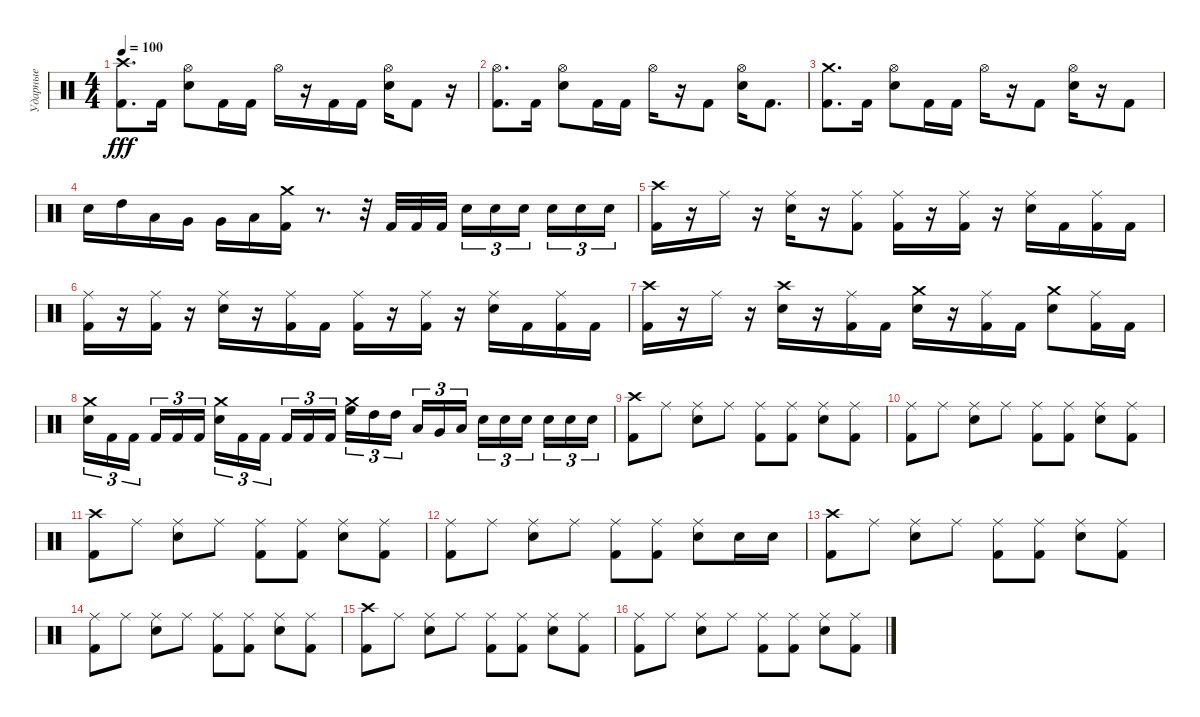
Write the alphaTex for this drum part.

\track ("Ударные" "Ударные") {instrument percussion}
\staff {score}
\articulation defaults
\ts (4 4)
\tempo 100
\clef neutral
\ks c
("Kick (hit) 2" "Crash high (hit)").8{d dy fff} "Kick (hit) 2".16 ("Electric Snare (hit)" "Hi-Hat (open)").8 "Kick (hit) 2".16 "Kick (hit) 2".16 "Hi-Hat (open)".16 r.16 "Kick (hit) 2".16 "Kick (hit) 2".16 ("Electric Snare (hit)" "Hi-Hat (open)").16 "Kick (hit) 2".8 r.16 |
("Kick (hit) 2" "Hi-Hat (open)").8{d} "Kick (hit) 2".16 ("Electric Snare (hit)" "Hi-Hat (open)").8 "Kick (hit) 2".16 "Kick (hit) 2".16 "Hi-Hat (open)".16 r.16 "Kick (hit) 2".8 ("Electric Snare (hit)" "Hi-Hat (open)").16 "Kick (hit) 2".8{d} |
("Kick (hit) 2" "Crash medium (hit)").8{d} "Kick (hit) 2".16 ("Electric Snare (hit)" "Hi-Hat (open)").8 "Kick (hit) 2".16 "Kick (hit) 2".16 "Hi-Hat (open)".16 r.16 "Kick (hit) 2".8 ("Electric Snare (hit)" "Hi-Hat (open)").16 r.16 "Kick (hit) 2".8 |
"Electric Snare (hit)".16 "High Tom (hit)".16 "Low Tom (hit)".16 "Very Low Tom (hit)".16 "Very Low Tom (hit)".16 "Low Floor Tom (hit)".16 ("Kick (hit) 2" "Crash medium (hit)").16 r.8{d} r.32 "Kick (hit) 2".32 "Kick (hit) 2".32 "Kick (hit) 2".32 "Electric Snare (hit)".16{tu (3 2)} "Electric Snare (hit)".16{tu (3 2)} "Electric Snare (hit)".16{tu (3 2) beam splitsecondary} "Electric Snare (hit)".16{tu (3 2)} "Electric Snare (hit)".16{tu (3 2)} "Electric Snare (hit)".16{tu (3 2)} |
("Kick (hit) 2" "Crash high (hit)").16 r.16 "Ride (middle)".16 r.16 ("Electric Snare (hit)" "Ride (middle)").16 r.16 ("Kick (hit) 2" "Ride (middle)").8 ("Kick (hit) 2" "Ride (middle)").16 r.16 ("Kick (hit) 2" "Ride (middle)").16 r.16 ("Electric Snare (hit)" "Ride (middle)").16 "Kick (hit) 2".16 ("Kick (hit) 2" "Ride (middle)").16 "Kick (hit) 2".16 |
("Kick (hit) 2" "Ride (middle)").16 r.16 ("Kick (hit) 2" "Ride (middle)").16 r.16 ("Electric Snare (hit)" "Ride (middle)").16 r.16 ("Kick (hit) 2" "Ride (middle)").16 "Kick (hit) 2".16 ("Kick (hit) 2" "Ride (middle)").16 r.16 ("Kick (hit) 2" "Ride (middle)").16 r.16 ("Electric Snare (hit)" "Ride (middle)").16 "Kick (hit) 2".16 ("Kick (hit) 2" "Ride (middle)").16 "Kick (hit) 2".16 |
("Kick (hit) 2" "Crash high (hit)").16 r.16 "Ride (middle)".16 r.16 ("Electric Snare (hit)" "Crash high (hit)").16 r.16 ("Kick (hit) 2" "Ride (middle)").16 "Kick (hit) 2".16 ("Electric Snare (hit)" "Crash medium (hit)").16 r.16 ("Kick (hit) 2" "Ride (middle)").16 "Kick (hit) 2".16 ("Electric Snare (hit)" "Crash medium (hit)").8 ("Kick (hit) 2" "Ride (middle)").16 "Kick (hit) 2".16 |
("Electric Snare (hit)" "Crash medium (hit)").16{tu (3 2)} "Kick (hit) 2".16{tu (3 2)} "Kick (hit) 2".16{tu (3 2) beam splitsecondary} "Kick (hit) 2".16{tu (3 2)} "Kick (hit) 2".16{tu (3 2)} "Kick (hit) 2".16{tu (3 2)} ("Electric Snare (hit)" "Crash medium (hit)").16{tu (3 2)} "Kick (hit) 2".16{tu (3 2)} "Kick (hit) 2".16{tu (3 2) beam splitsecondary} "Kick (hit) 2".16{tu (3 2)} "Kick (hit) 2".16{tu (3 2)} "Kick (hit) 2".16{tu (3 2)} ("High Floor Tom (hit)" "Crash medium (hit)").16{tu (3 2)} "High Tom (hit)".16{tu (3 2)} "High Tom (hit)".16{tu (3 2) beam splitsecondary} "Low Tom (hit)".16{tu (3 2)} "Very Low Tom (hit)".16{tu (3 2)} "Low Floor Tom (hit)".16{tu (3 2)} "Electric Snare (hit)".16{tu (3 2)} "Electric Snare (hit)".16{tu (3 2)} "Electric Snare (hit)".16{tu (3 2) beam splitsecondary} "Electric Snare (hit)".16{tu (3 2)} "Electric Snare (hit)".16{tu (3 2)} "Electric Snare (hit)".16{tu (3 2)} |
("Kick (hit) 2" "Crash high (hit)").8 "Ride (middle)".8 ("Electric Snare (hit)" "Ride (middle)").8 "Ride (middle)".8 ("Kick (hit) 2" "Ride (middle)").8 ("Kick (hit) 2" "Ride (middle)").8 ("Electric Snare (hit)" "Ride (middle)").8 ("Kick (hit) 2" "Ride (middle)").8 |
("Kick (hit) 2" "Ride (middle)").8 "Ride (middle)".8 ("Electric Snare (hit)" "Ride (middle)").8 "Ride (middle)".8 ("Kick (hit) 2" "Ride (middle)").8 ("Kick (hit) 2" "Ride (middle)").8 ("Electric Snare (hit)" "Ride (middle)").8 ("Kick (hit) 2" "Ride (middle)").8 |
("Kick (hit) 2" "Crash high (hit)").8 "Ride (middle)".8 ("Electric Snare (hit)" "Ride (middle)").8 "Ride (middle)".8 ("Kick (hit) 2" "Ride (middle)").8 ("Kick (hit) 2" "Ride (middle)").8 ("Electric Snare (hit)" "Ride (middle)").8 ("Kick (hit) 2" "Ride (middle)").8 |
("Kick (hit) 2" "Ride (middle)").8 "Ride (middle)".8 ("Electric Snare (hit)" "Ride (middle)").8 "Ride (middle)".8 ("Kick (hit) 2" "Ride (middle)").8 ("Kick (hit) 2" "Ride (middle)").8 ("Electric Snare (hit)" "Ride (middle)").8 "Electric Snare (hit)".16 "Electric Snare (hit)".16 |
("Kick (hit) 2" "Crash high (hit)").8 "Ride (middle)".8 ("Electric Snare (hit)" "Ride (middle)").8 "Ride (middle)".8 ("Kick (hit) 2" "Ride (middle)").8 ("Kick (hit) 2" "Ride (middle)").8 ("Electric Snare (hit)" "Ride (middle)").8 ("Kick (hit) 2" "Ride (middle)").8 |
("Kick (hit) 2" "Ride (middle)").8 "Ride (middle)".8 ("Electric Snare (hit)" "Ride (middle)").8 "Ride (middle)".8 ("Kick (hit) 2" "Ride (middle)").8 ("Kick (hit) 2" "Ride (middle)").8 ("Electric Snare (hit)" "Ride (middle)").8 ("Kick (hit) 2" "Ride (middle)").8 |
("Kick (hit) 2" "Crash high (hit)").8 "Ride (middle)".8 ("Electric Snare (hit)" "Ride (middle)").8 "Ride (middle)".8 ("Kick (hit) 2" "Ride (middle)").8 ("Kick (hit) 2" "Ride (middle)").8 ("Electric Snare (hit)" "Ride (middle)").8 ("Kick (hit) 2" "Ride (middle)").8 |
("Kick (hit) 2" "Ride (middle)").8 "Ride (middle)".8 ("Electric Snare (hit)" "Ride (middle)").8 "Ride (middle)".8 ("Kick (hit) 2" "Ride (middle)").8 ("Kick (hit) 2" "Ride (middle)").8 ("Electric Snare (hit)" "Ride (middle)").8 ("Kick (hit) 2" "Ride (middle)").8
